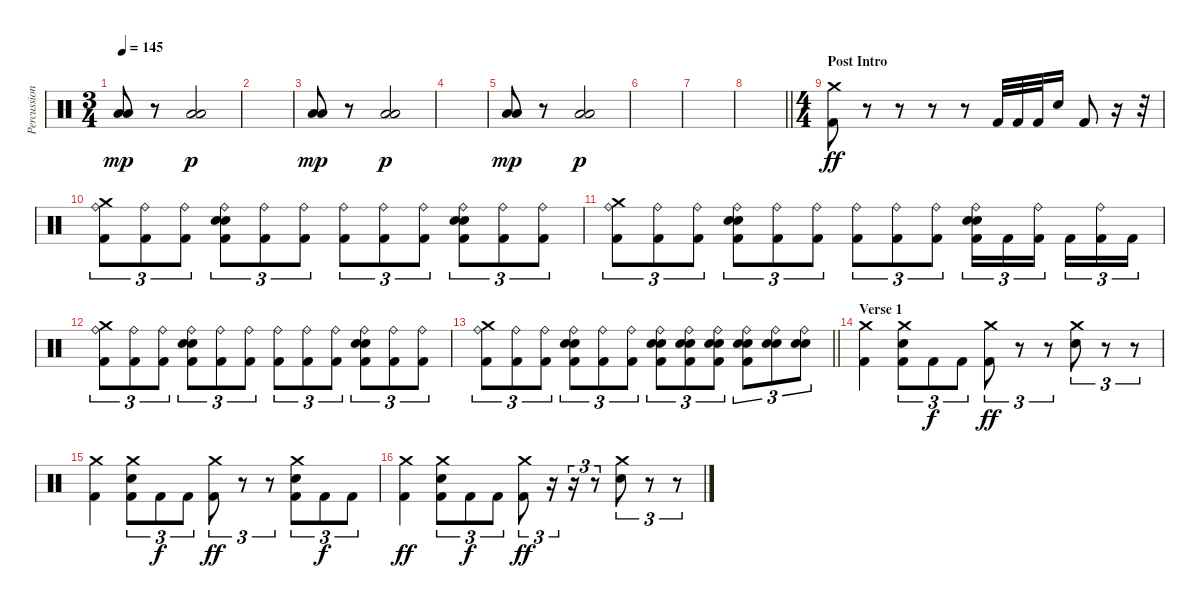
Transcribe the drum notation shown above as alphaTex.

\track ("Percussion" "Percussion") {instrument percussion}
\staff {score}
\articulation defaults
\ts (3 4)
\tempo 145
\clef neutral
\ks c
("Low Floor Tom (hit)" "Low Tom (hit)").8{dy mp} r.8 ("Low Floor Tom (hit)" "Low Tom (hit)").2{dy p} |
|
("Low Floor Tom (hit)" "Low Tom (hit)").8{dy mp} r.8 ("Low Floor Tom (hit)" "Low Tom (hit)").2{dy p} |
|
("Low Floor Tom (hit)" "Low Tom (hit)").8{dy mp} r.8 ("Low Floor Tom (hit)" "Low Tom (hit)").2{dy p} |
|
|
\barLineRight lightlight
|
\ts (4 4)
\section ("" "Post Intro")
("Crash medium (hit)" "Kick (hit) 2").8{dy ff} r.8 r.8 r.8 r.8 "Kick (hit) 2".32 "Kick (hit) 2".32 "Kick (hit) 2".32 "Electric Snare (hit)".16 "Kick (hit) 2".8 r.16 r.32 |
("Ride (bell)" "Crash medium (hit)" "Kick (hit) 2").8{tu (3 2)} ("Ride (bell)" "Kick (hit) 2").8{tu (3 2)} ("Ride (bell)" "Kick (hit) 2").8{tu (3 2)} ("Ride (bell)" "Snare (hit) 2" "Electric Snare (hit)" "Kick (hit) 2").8{tu (3 2)} ("Ride (bell)" "Kick (hit) 2").8{tu (3 2)} ("Ride (bell)" "Kick (hit) 2").8{tu (3 2)} ("Ride (bell)" "Kick (hit) 2").8{tu (3 2)} ("Ride (bell)" "Kick (hit) 2").8{tu (3 2)} ("Ride (bell)" "Kick (hit) 2").8{tu (3 2)} ("Ride (bell)" "Snare (hit) 2" "Electric Snare (hit)" "Kick (hit) 2").8{tu (3 2)} ("Ride (bell)" "Kick (hit) 2").8{tu (3 2)} ("Ride (bell)" "Kick (hit) 2").8{tu (3 2)} |
("Ride (bell)" "Crash medium (hit)" "Kick (hit) 2").8{tu (3 2)} ("Ride (bell)" "Kick (hit) 2").8{tu (3 2)} ("Ride (bell)" "Kick (hit) 2").8{tu (3 2)} ("Ride (bell)" "Snare (hit) 2" "Electric Snare (hit)" "Kick (hit) 2").8{tu (3 2)} ("Ride (bell)" "Kick (hit) 2").8{tu (3 2)} ("Ride (bell)" "Kick (hit) 2").8{tu (3 2)} ("Ride (bell)" "Kick (hit) 2").8{tu (3 2)} ("Ride (bell)" "Kick (hit) 2").8{tu (3 2)} ("Ride (bell)" "Kick (hit) 2").8{tu (3 2)} ("Ride (bell)" "Snare (hit) 2" "Electric Snare (hit)" "Kick (hit) 2").16{tu (3 2)} "Kick (hit) 2".16{tu (3 2)} ("Ride (bell)" "Kick (hit) 2").16{tu (3 2) beam splitsecondary} "Kick (hit) 2".16{tu (3 2)} ("Ride (bell)" "Kick (hit) 2").16{tu (3 2)} "Kick (hit) 2".16{tu (3 2)} |
("Ride (bell)" "Crash medium (hit)" "Kick (hit) 2").8{tu (3 2)} ("Ride (bell)" "Kick (hit) 2").8{tu (3 2)} ("Ride (bell)" "Kick (hit) 2").8{tu (3 2)} ("Ride (bell)" "Snare (hit) 2" "Electric Snare (hit)" "Kick (hit) 2").8{tu (3 2)} ("Ride (bell)" "Kick (hit) 2").8{tu (3 2)} ("Ride (bell)" "Kick (hit) 2").8{tu (3 2)} ("Ride (bell)" "Kick (hit) 2").8{tu (3 2)} ("Ride (bell)" "Kick (hit) 2").8{tu (3 2)} ("Ride (bell)" "Kick (hit) 2").8{tu (3 2)} ("Ride (bell)" "Snare (hit) 2" "Electric Snare (hit)" "Kick (hit) 2").8{tu (3 2)} ("Ride (bell)" "Kick (hit) 2").8{tu (3 2)} ("Ride (bell)" "Kick (hit) 2").8{tu (3 2)} |
\barLineRight lightlight
("Ride (bell)" "Crash medium (hit)" "Kick (hit) 2").8{tu (3 2)} ("Ride (bell)" "Kick (hit) 2").8{tu (3 2)} ("Ride (bell)" "Kick (hit) 2").8{tu (3 2)} ("Ride (bell)" "Snare (hit) 2" "Electric Snare (hit)" "Kick (hit) 2").8{tu (3 2)} ("Ride (bell)" "Kick (hit) 2").8{tu (3 2)} ("Ride (bell)" "Kick (hit) 2").8{tu (3 2)} ("Ride (bell)" "Electric Snare (hit)" "Electric Snare (hit)" "Kick (hit) 2").8{tu (3 2)} ("Ride (bell)" "Electric Snare (hit)" "Electric Snare (hit)" "Kick (hit) 2").8{tu (3 2)} ("Ride (bell)" "Electric Snare (hit)" "Electric Snare (hit)" "Kick (hit) 2").8{tu (3 2)} ("Ride (bell)" "Electric Snare (hit)" "Electric Snare (hit)" "Kick (hit) 2").8{tu (3 2)} ("Ride (bell)" "Electric Snare (hit)" "Electric Snare (hit)").8{tu (3 2)} ("Ride (bell)" "Electric Snare (hit)" "Electric Snare (hit)").8{tu (3 2)} |
\section ("" "Verse 1 ")
("Crash medium (hit)" "Kick (hit) 2").4 ("Electric Snare (hit)" "Crash medium (hit)" "Kick (hit) 2").8{tu (3 2)} "Kick (hit) 2".8{tu (3 2) dy f} "Kick (hit) 2".8{tu (3 2)} ("Crash medium (hit)" "Kick (hit) 2").8{tu (3 2) dy ff} r.8{tu (3 2)} r.8{tu (3 2)} ("Electric Snare (hit)" "Crash medium (hit)").8{tu (3 2)} r.8{tu (3 2)} r.8{tu (3 2)} |
("Crash medium (hit)" "Kick (hit) 2").4 ("Electric Snare (hit)" "Crash medium (hit)" "Kick (hit) 2").8{tu (3 2)} "Kick (hit) 2".8{tu (3 2) dy f} "Kick (hit) 2".8{tu (3 2)} ("Crash medium (hit)" "Kick (hit) 2").8{tu (3 2) dy ff} r.8{tu (3 2)} r.8{tu (3 2)} ("Electric Snare (hit)" "Crash medium (hit)" "Kick (hit) 2").8{tu (3 2)} "Kick (hit) 2".8{tu (3 2) dy f} "Kick (hit) 2".8{tu (3 2)} |
("Crash medium (hit)" "Kick (hit) 2").4{dy ff} ("Electric Snare (hit)" "Crash medium (hit)" "Kick (hit) 2").8{tu (3 2)} "Kick (hit) 2".8{tu (3 2) dy f} "Kick (hit) 2".8{tu (3 2)} ("Crash medium (hit)" "Kick (hit) 2").8{tu (3 2) dy ff} r.16{tu (3 2)} r.16{tu (3 2)} r.8{tu (3 2)} ("Electric Snare (hit)" "Crash medium (hit)").8{tu (3 2)} r.8{tu (3 2)} r.8{tu (3 2)}
